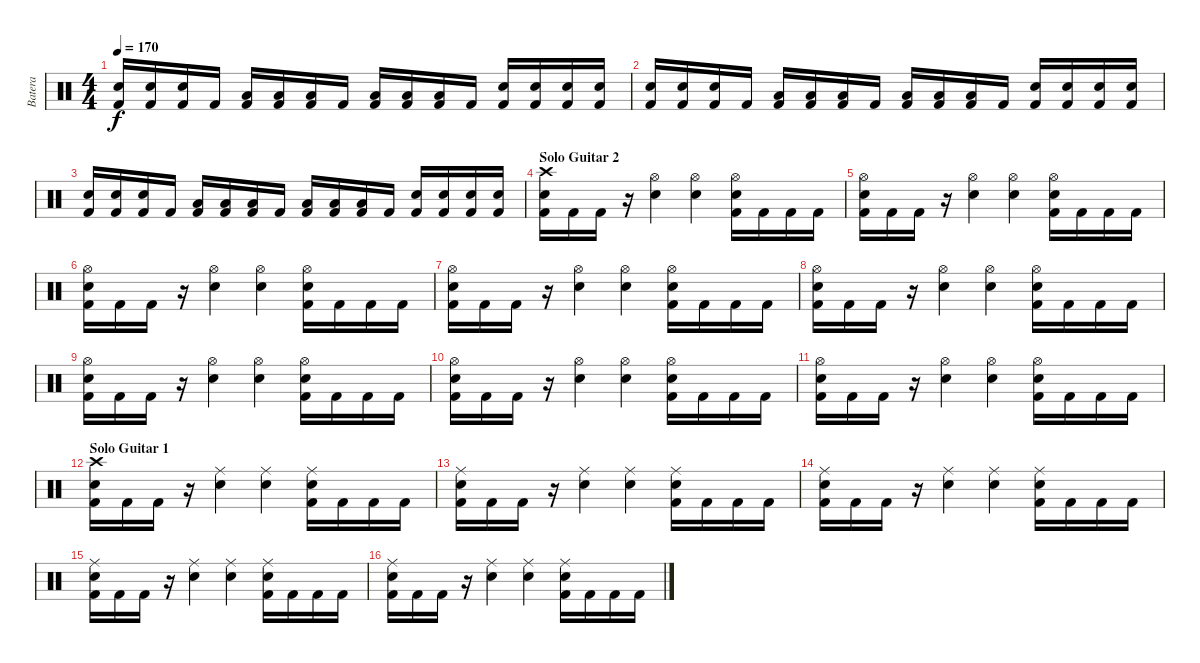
\track ("Batera" "Batera") {instrument percussion}
\staff {score}
\articulation defaults
\ts (4 4)
\tempo 170
\clef neutral
\ks c
("Electric Snare (hit)" "Kick (hit) 2").16{dy f} ("Electric Snare (hit)" "Kick (hit) 2").16 ("Electric Snare (hit)" "Kick (hit) 2").16 "Kick (hit) 2".16 ("Low Floor Tom (hit)" "Kick (hit) 2").16 ("Low Floor Tom (hit)" "Kick (hit) 2").16 ("Low Floor Tom (hit)" "Kick (hit) 2").16 "Kick (hit) 2".16 ("Low Tom (hit)" "Kick (hit) 2").16 ("Low Tom (hit)" "Kick (hit) 2").16 ("Low Tom (hit)" "Kick (hit) 2").16 "Kick (hit) 2".16 ("Electric Snare (hit)" "Kick (hit) 2").16 ("Electric Snare (hit)" "Kick (hit) 2").16 ("Electric Snare (hit)" "Kick (hit) 2").16 ("Electric Snare (hit)" "Kick (hit) 2").16 |
("Electric Snare (hit)" "Kick (hit) 2").16 ("Electric Snare (hit)" "Kick (hit) 2").16 ("Electric Snare (hit)" "Kick (hit) 2").16 "Kick (hit) 2".16 ("Low Floor Tom (hit)" "Kick (hit) 2").16 ("Low Floor Tom (hit)" "Kick (hit) 2").16 ("Low Floor Tom (hit)" "Kick (hit) 2").16 "Kick (hit) 2".16 ("Low Tom (hit)" "Kick (hit) 2").16 ("Low Tom (hit)" "Kick (hit) 2").16 ("Low Tom (hit)" "Kick (hit) 2").16 "Kick (hit) 2".16 ("Electric Snare (hit)" "Kick (hit) 2").16 ("Electric Snare (hit)" "Kick (hit) 2").16 ("Electric Snare (hit)" "Kick (hit) 2").16 ("Electric Snare (hit)" "Kick (hit) 2").16 |
("Electric Snare (hit)" "Kick (hit) 2").16 ("Electric Snare (hit)" "Kick (hit) 2").16 ("Electric Snare (hit)" "Kick (hit) 2").16 "Kick (hit) 2".16 ("Low Floor Tom (hit)" "Kick (hit) 2").16 ("Low Floor Tom (hit)" "Kick (hit) 2").16 ("Low Floor Tom (hit)" "Kick (hit) 2").16 "Kick (hit) 2".16 ("Low Tom (hit)" "Kick (hit) 2").16 ("Low Tom (hit)" "Kick (hit) 2").16 ("Low Tom (hit)" "Kick (hit) 2").16 "Kick (hit) 2".16 ("Electric Snare (hit)" "Kick (hit) 2").16 ("Electric Snare (hit)" "Kick (hit) 2").16 ("Electric Snare (hit)" "Kick (hit) 2").16 ("Electric Snare (hit)" "Kick (hit) 2").16 |
\section ("" "Solo Guitar 2")
("Crash high (hit)" "Electric Snare (hit)" "Kick (hit) 2").16 "Kick (hit) 2".16 "Kick (hit) 2".16 r.16 ("Hi-Hat (open)" "Electric Snare (hit)").4 ("Hi-Hat (open)" "Electric Snare (hit)").4 ("Hi-Hat (open)" "Electric Snare (hit)" "Kick (hit) 2").16 "Kick (hit) 2".16 "Kick (hit) 2".16 "Kick (hit) 2".16 |
("Hi-Hat (open)" "Electric Snare (hit)" "Kick (hit) 2").16 "Kick (hit) 2".16 "Kick (hit) 2".16 r.16 ("Hi-Hat (open)" "Electric Snare (hit)").4 ("Hi-Hat (open)" "Electric Snare (hit)").4 ("Hi-Hat (open)" "Electric Snare (hit)" "Kick (hit) 2").16 "Kick (hit) 2".16 "Kick (hit) 2".16 "Kick (hit) 2".16 |
("Hi-Hat (open)" "Electric Snare (hit)" "Kick (hit) 2").16 "Kick (hit) 2".16 "Kick (hit) 2".16 r.16 ("Hi-Hat (open)" "Electric Snare (hit)").4 ("Hi-Hat (open)" "Electric Snare (hit)").4 ("Hi-Hat (open)" "Electric Snare (hit)" "Kick (hit) 2").16 "Kick (hit) 2".16 "Kick (hit) 2".16 "Kick (hit) 2".16 |
("Hi-Hat (open)" "Electric Snare (hit)" "Kick (hit) 2").16 "Kick (hit) 2".16 "Kick (hit) 2".16 r.16 ("Hi-Hat (open)" "Electric Snare (hit)").4 ("Hi-Hat (open)" "Electric Snare (hit)").4 ("Hi-Hat (open)" "Electric Snare (hit)" "Kick (hit) 2").16 "Kick (hit) 2".16 "Kick (hit) 2".16 "Kick (hit) 2".16 |
("Hi-Hat (open)" "Electric Snare (hit)" "Kick (hit) 2").16 "Kick (hit) 2".16 "Kick (hit) 2".16 r.16 ("Hi-Hat (open)" "Electric Snare (hit)").4 ("Hi-Hat (open)" "Electric Snare (hit)").4 ("Hi-Hat (open)" "Electric Snare (hit)" "Kick (hit) 2").16 "Kick (hit) 2".16 "Kick (hit) 2".16 "Kick (hit) 2".16 |
("Hi-Hat (open)" "Electric Snare (hit)" "Kick (hit) 2").16 "Kick (hit) 2".16 "Kick (hit) 2".16 r.16 ("Hi-Hat (open)" "Electric Snare (hit)").4 ("Hi-Hat (open)" "Electric Snare (hit)").4 ("Hi-Hat (open)" "Electric Snare (hit)" "Kick (hit) 2").16 "Kick (hit) 2".16 "Kick (hit) 2".16 "Kick (hit) 2".16 |
("Hi-Hat (open)" "Electric Snare (hit)" "Kick (hit) 2").16 "Kick (hit) 2".16 "Kick (hit) 2".16 r.16 ("Hi-Hat (open)" "Electric Snare (hit)").4 ("Hi-Hat (open)" "Electric Snare (hit)").4 ("Hi-Hat (open)" "Electric Snare (hit)" "Kick (hit) 2").16 "Kick (hit) 2".16 "Kick (hit) 2".16 "Kick (hit) 2".16 |
("Hi-Hat (open)" "Electric Snare (hit)" "Kick (hit) 2").16 "Kick (hit) 2".16 "Kick (hit) 2".16 r.16 ("Hi-Hat (open)" "Electric Snare (hit)").4 ("Hi-Hat (open)" "Electric Snare (hit)").4 ("Hi-Hat (open)" "Electric Snare (hit)" "Kick (hit) 2").16 "Kick (hit) 2".16 "Kick (hit) 2".16 "Kick (hit) 2".16 |
\section ("" "Solo Guitar 1")
("Crash high (hit)" "Electric Snare (hit)" "Kick (hit) 2").16 "Kick (hit) 2".16 "Kick (hit) 2".16 r.16 ("Ride (middle)" "Electric Snare (hit)").4 ("Ride (middle)" "Electric Snare (hit)").4 ("Ride (middle)" "Electric Snare (hit)" "Kick (hit) 2").16 "Kick (hit) 2".16 "Kick (hit) 2".16 "Kick (hit) 2".16 |
("Ride (middle)" "Electric Snare (hit)" "Kick (hit) 2").16 "Kick (hit) 2".16 "Kick (hit) 2".16 r.16 ("Ride (middle)" "Electric Snare (hit)").4 ("Ride (middle)" "Electric Snare (hit)").4 ("Ride (middle)" "Electric Snare (hit)" "Kick (hit) 2").16 "Kick (hit) 2".16 "Kick (hit) 2".16 "Kick (hit) 2".16 |
("Ride (middle)" "Electric Snare (hit)" "Kick (hit) 2").16 "Kick (hit) 2".16 "Kick (hit) 2".16 r.16 ("Ride (middle)" "Electric Snare (hit)").4 ("Ride (middle)" "Electric Snare (hit)").4 ("Ride (middle)" "Electric Snare (hit)" "Kick (hit) 2").16 "Kick (hit) 2".16 "Kick (hit) 2".16 "Kick (hit) 2".16 |
("Ride (middle)" "Electric Snare (hit)" "Kick (hit) 2").16 "Kick (hit) 2".16 "Kick (hit) 2".16 r.16 ("Ride (middle)" "Electric Snare (hit)").4 ("Ride (middle)" "Electric Snare (hit)").4 ("Ride (middle)" "Electric Snare (hit)" "Kick (hit) 2").16 "Kick (hit) 2".16 "Kick (hit) 2".16 "Kick (hit) 2".16 |
("Ride (middle)" "Electric Snare (hit)" "Kick (hit) 2").16 "Kick (hit) 2".16 "Kick (hit) 2".16 r.16 ("Ride (middle)" "Electric Snare (hit)").4 ("Ride (middle)" "Electric Snare (hit)").4 ("Ride (middle)" "Electric Snare (hit)" "Kick (hit) 2").16 "Kick (hit) 2".16 "Kick (hit) 2".16 "Kick (hit) 2".16
